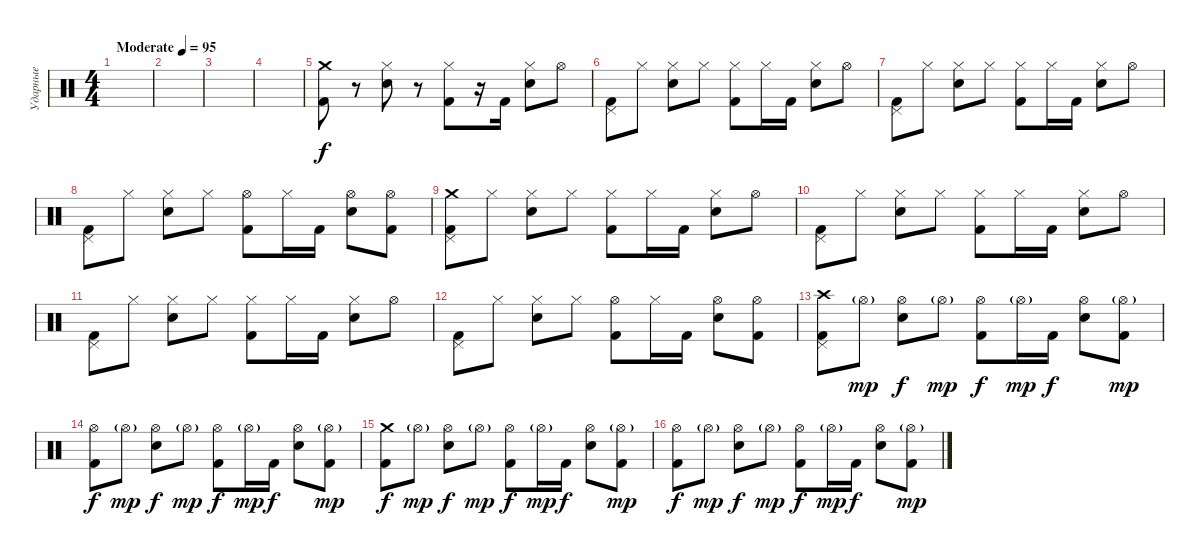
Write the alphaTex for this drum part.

\track ("Ударные" "Ударные") {instrument percussion}
\staff {score}
\articulation defaults
\ts (4 4)
\tempo (95 "Moderate")
\clef neutral
\ks c
|
|
|
|
("Crash medium (hit)" "Kick (hit) 2").8 r.8 ("Hi-Hat (closed)" "Snare (hit) 2").8 r.8 ("Hi-Hat (closed)" "Kick (hit) 2").8 r.16 "Kick (hit) 2".16 ("Hi-Hat (closed)" "Snare (hit) 2").8 "Hi-Hat (open)".8 |
("Pedal Hi-Hat (hit)" "Kick (hit) 2").8 "Hi-Hat (closed)".8 ("Hi-Hat (closed)" "Snare (hit) 2").8 "Hi-Hat (closed)".8 ("Hi-Hat (closed)" "Kick (hit) 2").8 "Hi-Hat (closed)".16 "Kick (hit) 2".16 ("Hi-Hat (closed)" "Snare (hit) 2").8 "Hi-Hat (open)".8 |
("Pedal Hi-Hat (hit)" "Kick (hit) 2").8 "Hi-Hat (closed)".8 ("Hi-Hat (closed)" "Snare (hit) 2").8 "Hi-Hat (closed)".8 ("Hi-Hat (closed)" "Kick (hit) 2").8 "Hi-Hat (closed)".16 "Kick (hit) 2".16 ("Hi-Hat (closed)" "Snare (hit) 2").8 "Hi-Hat (open)".8 |
("Pedal Hi-Hat (hit)" "Kick (hit) 2").8 "Hi-Hat (closed)".8 ("Hi-Hat (closed)" "Snare (hit) 2").8 "Hi-Hat (closed)".8 ("Hi-Hat (open)" "Kick (hit) 2").8 "Hi-Hat (closed)".16 "Kick (hit) 2".16 ("Hi-Hat (open)" "Snare (hit) 2").8 ("Hi-Hat (open)" "Kick (hit) 2").8 |
("Crash medium (hit)" "Pedal Hi-Hat (hit)" "Kick (hit) 2").8 "Hi-Hat (closed)".8 ("Hi-Hat (closed)" "Snare (hit) 2").8 "Hi-Hat (closed)".8 ("Hi-Hat (closed)" "Kick (hit) 2").8 "Hi-Hat (closed)".16 "Kick (hit) 2".16 ("Hi-Hat (closed)" "Snare (hit) 2").8 "Hi-Hat (open)".8 |
("Pedal Hi-Hat (hit)" "Kick (hit) 2").8 "Hi-Hat (closed)".8 ("Hi-Hat (closed)" "Snare (hit) 2").8 "Hi-Hat (closed)".8 ("Hi-Hat (closed)" "Kick (hit) 2").8 "Hi-Hat (closed)".16 "Kick (hit) 2".16 ("Hi-Hat (closed)" "Snare (hit) 2").8 "Hi-Hat (open)".8 |
("Pedal Hi-Hat (hit)" "Kick (hit) 2").8 "Hi-Hat (closed)".8 ("Hi-Hat (closed)" "Snare (hit) 2").8 "Hi-Hat (closed)".8 ("Hi-Hat (closed)" "Kick (hit) 2").8 "Hi-Hat (closed)".16 "Kick (hit) 2".16 ("Hi-Hat (closed)" "Snare (hit) 2").8 "Hi-Hat (open)".8 |
("Pedal Hi-Hat (hit)" "Kick (hit) 2").8 "Hi-Hat (closed)".8 ("Hi-Hat (closed)" "Snare (hit) 2").8 "Hi-Hat (closed)".8 ("Hi-Hat (open)" "Kick (hit) 2").8 "Hi-Hat (closed)".16 "Kick (hit) 2".16 ("Hi-Hat (open)" "Snare (hit) 2").8 ("Hi-Hat (open)" "Kick (hit) 2").8 |
("Crash high (hit)" "Pedal Hi-Hat (hit)" "Kick (hit) 2").8 "Hi-Hat (open)"{g}.8{dy mp} ("Hi-Hat (open)" "Snare (hit) 2").8{dy f} "Hi-Hat (open)"{g}.8{dy mp} ("Hi-Hat (open)" "Kick (hit) 2").8{dy f} "Hi-Hat (open)"{g}.16{dy mp} "Kick (hit) 2".16{dy f} ("Hi-Hat (open)" "Snare (hit) 2").8 ("Hi-Hat (open)"{g} "Kick (hit) 2").8{dy mp} |
("Hi-Hat (open)" "Kick (hit) 2").8{dy f} "Hi-Hat (open)"{g}.8{dy mp} ("Hi-Hat (open)" "Snare (hit) 2").8{dy f} "Hi-Hat (open)"{g}.8{dy mp} ("Hi-Hat (open)" "Kick (hit) 2").8{dy f} "Hi-Hat (open)"{g}.16{dy mp} "Kick (hit) 2".16{dy f} ("Hi-Hat (open)" "Snare (hit) 2").8 ("Hi-Hat (open)"{g} "Kick (hit) 2").8{dy mp} |
("Crash medium (hit)" "Kick (hit) 2").8{dy f} "Hi-Hat (open)"{g}.8{dy mp} ("Hi-Hat (open)" "Snare (hit) 2").8{dy f} "Hi-Hat (open)"{g}.8{dy mp} ("Hi-Hat (open)" "Kick (hit) 2").8{dy f} "Hi-Hat (open)"{g}.16{dy mp} "Kick (hit) 2".16{dy f} ("Hi-Hat (open)" "Snare (hit) 2").8 ("Hi-Hat (open)"{g} "Kick (hit) 2").8{dy mp} |
("Hi-Hat (open)" "Kick (hit) 2").8{dy f} "Hi-Hat (open)"{g}.8{dy mp} ("Hi-Hat (open)" "Snare (hit) 2").8{dy f} "Hi-Hat (open)"{g}.8{dy mp} ("Hi-Hat (open)" "Kick (hit) 2").8{dy f} "Hi-Hat (open)"{g}.16{dy mp} "Kick (hit) 2".16{dy f} ("Hi-Hat (open)" "Snare (hit) 2").8 ("Hi-Hat (open)"{g} "Kick (hit) 2").8{dy mp}
